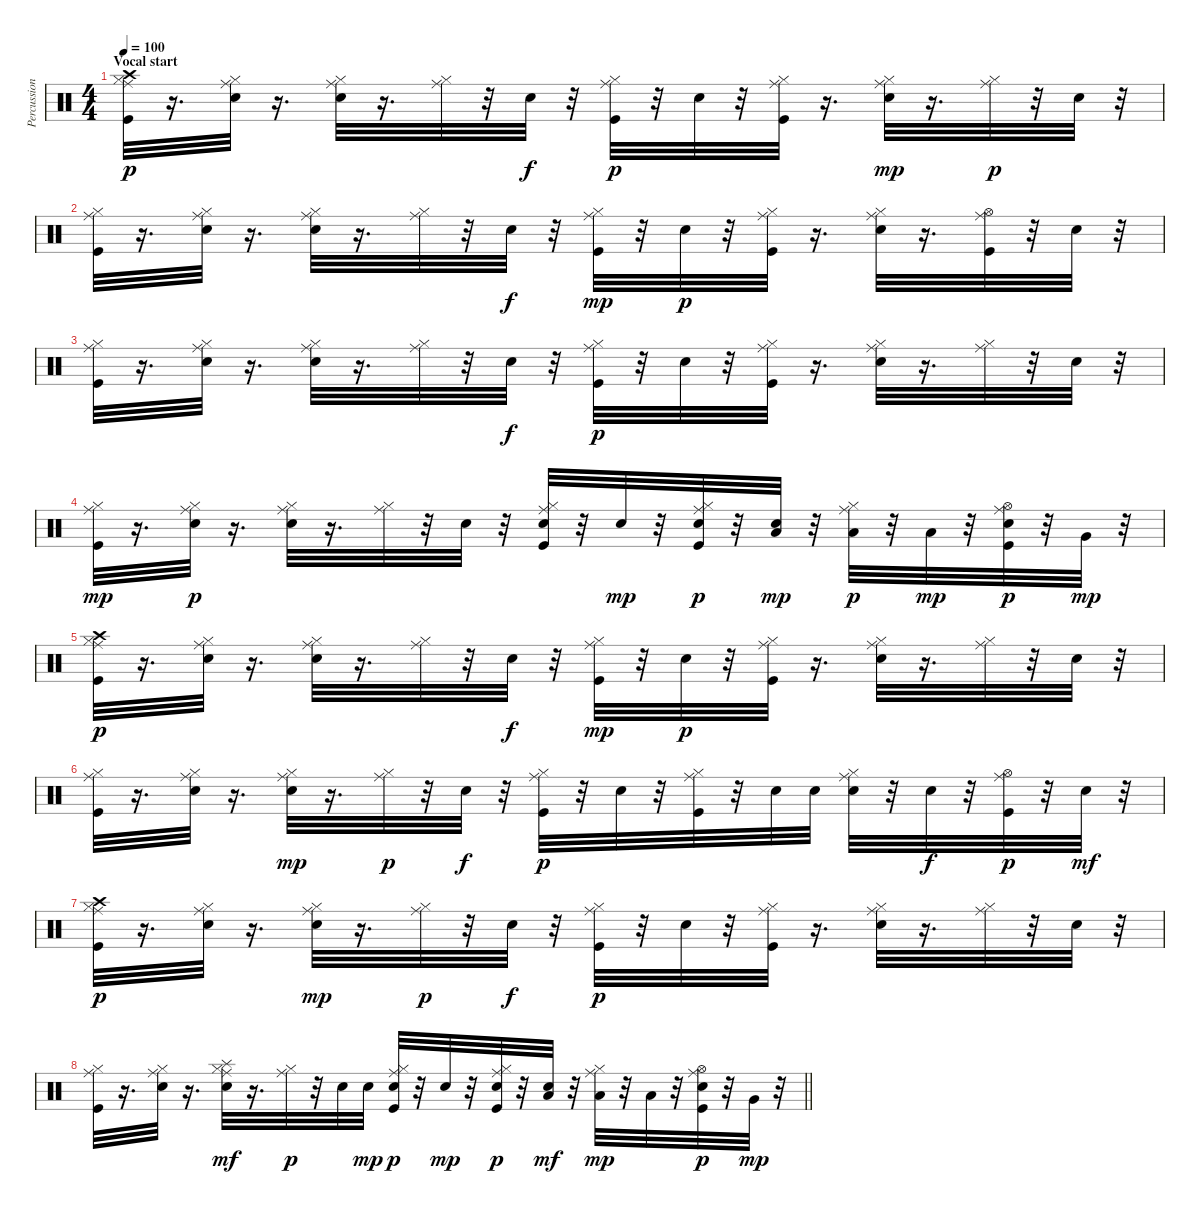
\track ("Percussions" "Percussion") {instrument percussion}
\staff {score}
\articulation defaults
\ts (4 4)
\section ("" "Vocal start")
\tempo 100
\clef neutral
\ks c
("Kick (hit)" "Hi-Hat (closed)" "Crash high (hit)" "Ride (middle)").32{dy p} r.16{d} ("Electric Snare (hit)" "Hi-Hat (closed)" "Ride (middle)").32 r.16{d} ("Electric Snare (hit)" "Hi-Hat (closed)" "Ride (middle)").32 r.16{d} ("Hi-Hat (closed)" "Ride (middle)").32 r.32 "Electric Snare (hit)".32{dy f} r.32 ("Kick (hit)" "Hi-Hat (closed)" "Ride (middle)").32{dy p} r.32 "Electric Snare (hit)".32 r.32 ("Kick (hit)" "Hi-Hat (closed)" "Ride (middle)").32 r.16{d} ("Electric Snare (hit)" "Hi-Hat (closed)" "Ride (middle)").32{dy mp} r.16{d} ("Hi-Hat (closed)" "Ride (middle)").32{dy p} r.32 "Electric Snare (hit)".32 r.32 |
("Kick (hit)" "Hi-Hat (closed)" "Ride (middle)").32 r.16{d} ("Electric Snare (hit)" "Hi-Hat (closed)" "Ride (middle)").32 r.16{d} ("Electric Snare (hit)" "Hi-Hat (closed)" "Ride (middle)").32 r.16{d} ("Hi-Hat (closed)" "Ride (middle)").32 r.32 "Electric Snare (hit)".32{dy f} r.32 ("Kick (hit)" "Hi-Hat (closed)" "Ride (middle)").32{dy mp} r.32 "Electric Snare (hit)".32{dy p} r.32 ("Kick (hit)" "Hi-Hat (closed)" "Ride (middle)").32 r.16{d} ("Electric Snare (hit)" "Hi-Hat (closed)" "Ride (middle)").32 r.16{d} ("Kick (hit)" "Hi-Hat (open)" "Ride (middle)").32 r.32 "Electric Snare (hit)".32 r.32 |
("Kick (hit)" "Hi-Hat (closed)" "Ride (middle)").32 r.16{d} ("Electric Snare (hit)" "Hi-Hat (closed)" "Ride (middle)").32 r.16{d} ("Electric Snare (hit)" "Hi-Hat (closed)" "Ride (middle)").32 r.16{d} ("Hi-Hat (closed)" "Ride (middle)").32 r.32 "Electric Snare (hit)".32{dy f} r.32 ("Kick (hit)" "Hi-Hat (closed)" "Ride (middle)").32{dy p} r.32 "Electric Snare (hit)".32 r.32 ("Kick (hit)" "Hi-Hat (closed)" "Ride (middle)").32 r.16{d} ("Electric Snare (hit)" "Hi-Hat (closed)" "Ride (middle)").32 r.16{d} ("Hi-Hat (closed)" "Ride (middle)").32 r.32 "Electric Snare (hit)".32 r.32 |
("Kick (hit)" "Hi-Hat (closed)" "Ride (middle)").32{dy mp} r.16{d} ("Electric Snare (hit)" "Hi-Hat (closed)" "Ride (middle)").32{dy p} r.16{d} ("Electric Snare (hit)" "Hi-Hat (closed)" "Ride (middle)").32 r.16{d} ("Hi-Hat (closed)" "Ride (middle)").32 r.32 "Electric Snare (hit)".32 r.32 ("Kick (hit)" "Electric Snare (hit)" "Hi-Hat (closed)" "Ride (middle)").32 r.32 "Electric Snare (hit)".32{dy mp} r.32 ("Kick (hit)" "Electric Snare (hit)" "Hi-Hat (closed)" "Ride (middle)").32{dy p} r.32 ("Electric Snare (hit)" "Low Tom (hit)").32{dy mp} r.32 ("Hi-Hat (closed)" "Low Tom (hit)" "Ride (middle)").32{dy p} r.32 "Low Tom (hit)".32{dy mp} r.32 ("Kick (hit)" "Electric Snare (hit)" "Hi-Hat (open)" "Ride (middle)").32{dy p} r.32 "Very Low Tom (hit)".32{dy mp} r.32 |
("Kick (hit)" "Hi-Hat (closed)" "Crash high (hit)" "Ride (middle)").32{dy p} r.16{d} ("Electric Snare (hit)" "Hi-Hat (closed)" "Ride (middle)").32 r.16{d} ("Electric Snare (hit)" "Hi-Hat (closed)" "Ride (middle)").32 r.16{d} ("Hi-Hat (closed)" "Ride (middle)").32 r.32 "Electric Snare (hit)".32{dy f} r.32 ("Kick (hit)" "Hi-Hat (closed)" "Ride (middle)").32{dy mp} r.32 "Electric Snare (hit)".32{dy p} r.32 ("Kick (hit)" "Hi-Hat (closed)" "Ride (middle)").32 r.16{d} ("Electric Snare (hit)" "Hi-Hat (closed)" "Ride (middle)").32 r.16{d} ("Hi-Hat (closed)" "Ride (middle)").32 r.32 "Electric Snare (hit)".32 r.32 |
("Kick (hit)" "Hi-Hat (closed)" "Ride (middle)").32 r.16{d} ("Electric Snare (hit)" "Hi-Hat (closed)" "Ride (middle)").32 r.16{d} ("Electric Snare (hit)" "Hi-Hat (closed)" "Ride (middle)").32{dy mp} r.16{d} ("Hi-Hat (closed)" "Ride (middle)").32{dy p} r.32 "Electric Snare (hit)".32{dy f} r.32 ("Kick (hit)" "Hi-Hat (closed)" "Ride (middle)").32{dy p} r.32 "Electric Snare (hit)".32 r.32 ("Kick (hit)" "Hi-Hat (closed)" "Ride (middle)").32 r.32 "Electric Snare (hit)".32 "Electric Snare (hit)".32 ("Electric Snare (hit)" "Hi-Hat (closed)" "Ride (middle)").32 r.32 "Electric Snare (hit)".32{dy f} r.32 ("Kick (hit)" "Hi-Hat (open)" "Ride (middle)").32{dy p} r.32 "Electric Snare (hit)".32{dy mf} r.32 |
("Kick (hit)" "Hi-Hat (closed)" "Crash high (hit)" "Ride (middle)").32{dy p} r.16{d} ("Electric Snare (hit)" "Hi-Hat (closed)" "Ride (middle)").32 r.16{d} ("Electric Snare (hit)" "Hi-Hat (closed)" "Ride (middle)").32{dy mp} r.16{d} ("Hi-Hat (closed)" "Ride (middle)").32{dy p} r.32 "Electric Snare (hit)".32{dy f} r.32 ("Kick (hit)" "Hi-Hat (closed)" "Ride (middle)").32{dy p} r.32 "Electric Snare (hit)".32 r.32 ("Kick (hit)" "Hi-Hat (closed)" "Ride (middle)").32 r.16{d} ("Electric Snare (hit)" "Hi-Hat (closed)" "Ride (middle)").32 r.16{d} ("Hi-Hat (closed)" "Ride (middle)").32 r.32 "Electric Snare (hit)".32 r.32 |
\barLineRight lightlight
("Kick (hit)" "Hi-Hat (closed)" "Ride (middle)").32 r.16{d} ("Electric Snare (hit)" "Hi-Hat (closed)" "Ride (middle)").32 r.16{d} ("Electric Snare (hit)" "Hi-Hat (closed)" "Ride (middle)" "Splash (hit)").32{dy mf} r.16{d} ("Hi-Hat (closed)" "Ride (middle)").32{dy p} r.32 "Electric Snare (hit)".32 "Electric Snare (hit)".32{dy mp} ("Kick (hit)" "Electric Snare (hit)" "Hi-Hat (closed)" "Ride (middle)").32{dy p} r.32 "Electric Snare (hit)".32{dy mp} r.32 ("Kick (hit)" "Electric Snare (hit)" "Hi-Hat (closed)" "Ride (middle)").32{dy p} r.32 ("Electric Snare (hit)" "Low Tom (hit)").32{dy mf} r.32 ("Hi-Hat (closed)" "Low Tom (hit)" "Ride (middle)").32{dy mp} r.32 "Low Tom (hit)".32 r.32 ("Kick (hit)" "Electric Snare (hit)" "Hi-Hat (open)" "Ride (middle)").32{dy p} r.32 "Very Low Tom (hit)".32{dy mp} r.32
